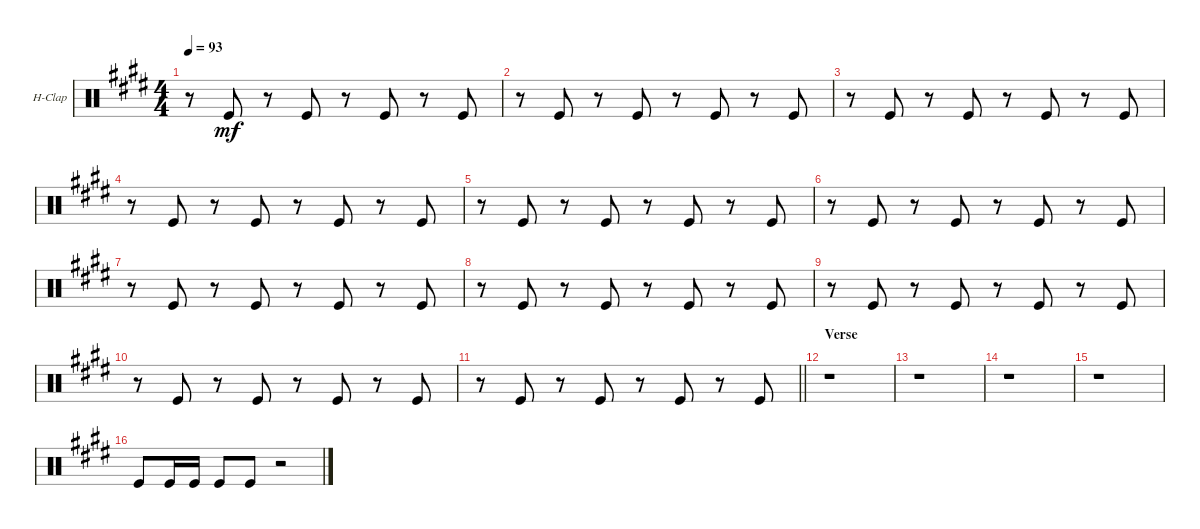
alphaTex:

\defaultSystemsLayout 4
\bracketExtendMode groupsimilarinstruments
\firstSystemTrackNameOrientation horizontal
\otherSystemsTrackNameOrientation horizontal
\track ("Hand Clap" "H-Clap") {instrument percussion}
\staff {score}
\articulation defaults
\ts (4 4)
\tempo 93
\clef neutral
\ks e
r.8{dy mf} "Kick (hit)".8 r.8 "Kick (hit)".8 r.8 "Kick (hit)".8 r.8 "Kick (hit)".8 |
r.8 "Kick (hit)".8 r.8 "Kick (hit)".8 r.8 "Kick (hit)".8 r.8 "Kick (hit)".8 |
r.8 "Kick (hit)".8 r.8 "Kick (hit)".8 r.8 "Kick (hit)".8 r.8 "Kick (hit)".8 |
r.8 "Kick (hit)".8 r.8 "Kick (hit)".8 r.8 "Kick (hit)".8 r.8 "Kick (hit)".8 |
r.8 "Kick (hit)".8 r.8 "Kick (hit)".8 r.8 "Kick (hit)".8 r.8 "Kick (hit)".8 |
r.8 "Kick (hit)".8 r.8 "Kick (hit)".8 r.8 "Kick (hit)".8 r.8 "Kick (hit)".8 |
r.8 "Kick (hit)".8 r.8 "Kick (hit)".8 r.8 "Kick (hit)".8 r.8 "Kick (hit)".8 |
r.8 "Kick (hit)".8 r.8 "Kick (hit)".8 r.8 "Kick (hit)".8 r.8 "Kick (hit)".8 |
r.8 "Kick (hit)".8 r.8 "Kick (hit)".8 r.8 "Kick (hit)".8 r.8 "Kick (hit)".8 |
r.8 "Kick (hit)".8 r.8 "Kick (hit)".8 r.8 "Kick (hit)".8 r.8 "Kick (hit)".8 |
\barLineRight lightlight
r.8 "Kick (hit)".8 r.8 "Kick (hit)".8 r.8 "Kick (hit)".8 r.8 "Kick (hit)".8 |
\section ("" "Verse")
r.1 |
r.1 |
r.1 |
r.1 |
"Kick (hit)".8 "Kick (hit)".16 "Kick (hit)".16 "Kick (hit)".8 "Kick (hit)".8 r.2
